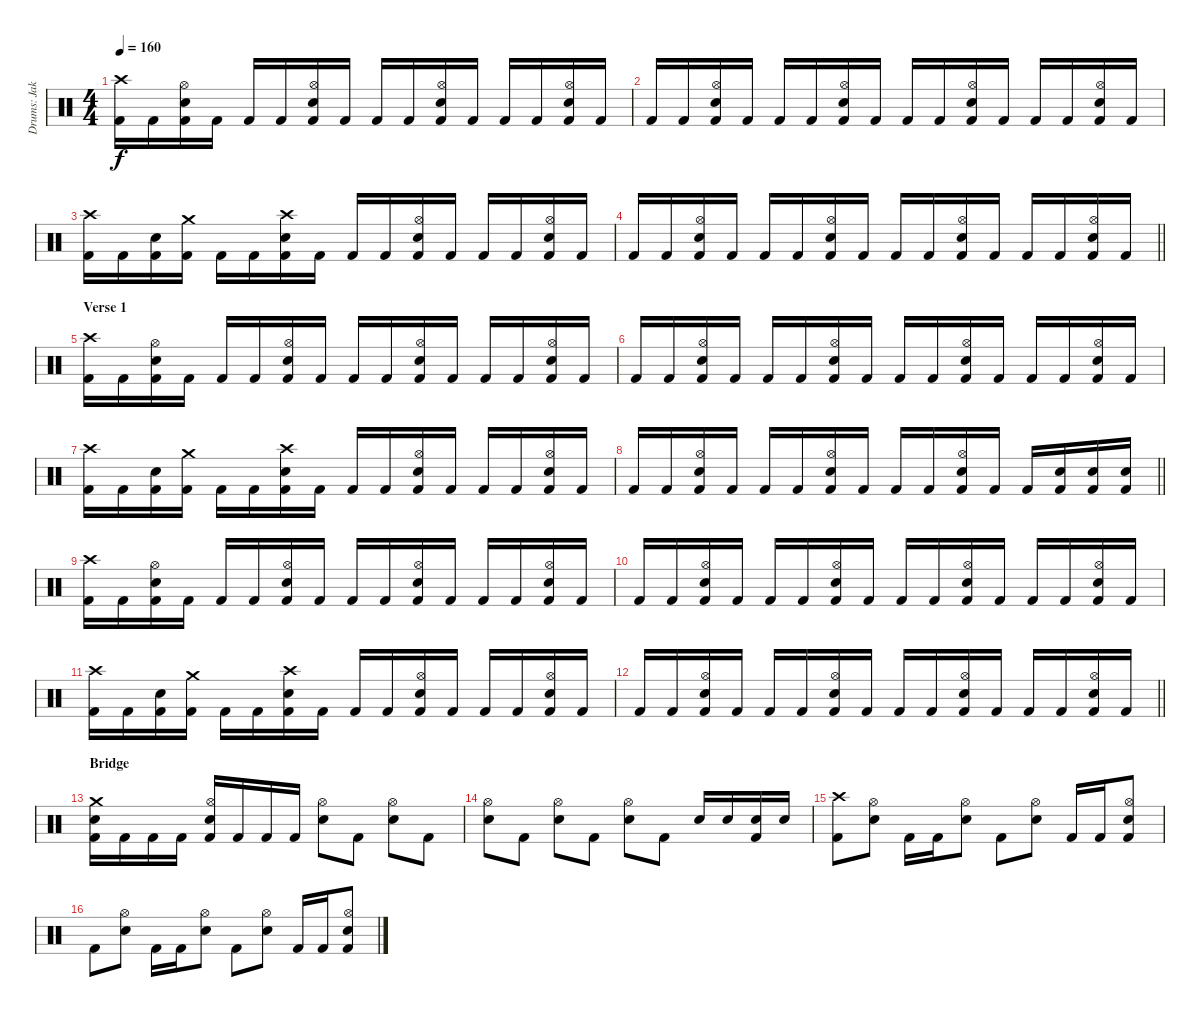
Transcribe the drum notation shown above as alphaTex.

\track ("Drums: Jake" "Drums: Jak") {instrument percussion}
\staff {score}
\articulation defaults
\ts (4 4)
\tempo 160
\clef neutral
\ks c
("Crash high (hit)" "Kick (hit) 2").16{dy f} "Kick (hit) 2".16 ("Hi-Hat (open)" "Snare (hit) 2" "Kick (hit) 2").16 "Kick (hit) 2".16 "Kick (hit) 2".16 "Kick (hit) 2".16 ("Hi-Hat (open)" "Snare (hit) 2" "Kick (hit) 2").16 "Kick (hit) 2".16 "Kick (hit) 2".16 "Kick (hit) 2".16 ("Hi-Hat (open)" "Snare (hit) 2" "Kick (hit) 2").16 "Kick (hit) 2".16 "Kick (hit) 2".16 "Kick (hit) 2".16 ("Hi-Hat (open)" "Snare (hit) 2" "Kick (hit) 2").16 "Kick (hit) 2".16 |
"Kick (hit) 2".16 "Kick (hit) 2".16 ("Hi-Hat (open)" "Snare (hit) 2" "Kick (hit) 2").16 "Kick (hit) 2".16 "Kick (hit) 2".16 "Kick (hit) 2".16 ("Hi-Hat (open)" "Snare (hit) 2" "Kick (hit) 2").16 "Kick (hit) 2".16 "Kick (hit) 2".16 "Kick (hit) 2".16 ("Hi-Hat (open)" "Snare (hit) 2" "Kick (hit) 2").16 "Kick (hit) 2".16 "Kick (hit) 2".16 "Kick (hit) 2".16 ("Hi-Hat (open)" "Snare (hit) 2" "Kick (hit) 2").16 "Kick (hit) 2".16 |
("Crash high (hit)" "Kick (hit) 2").16 "Kick (hit) 2".16 ("Snare (hit) 2" "Kick (hit) 2").16 ("Crash medium (hit)" "Kick (hit) 2").16 "Kick (hit) 2".16 "Kick (hit) 2".16 ("Crash high (hit)" "Snare (hit) 2" "Kick (hit) 2").16 "Kick (hit) 2".16 "Kick (hit) 2".16 "Kick (hit) 2".16 ("Hi-Hat (open)" "Snare (hit) 2" "Kick (hit) 2").16 "Kick (hit) 2".16 "Kick (hit) 2".16 "Kick (hit) 2".16 ("Hi-Hat (open)" "Snare (hit) 2" "Kick (hit) 2").16 "Kick (hit) 2".16 |
\barLineRight lightlight "Kick (hit) 2".16 "Kick (hit) 2".16
("Hi-Hat (open)" "Snare (hit) 2" "Kick (hit) 2").16 "Kick (hit) 2".16 "Kick (hit) 2".16 "Kick (hit) 2".16 ("Hi-Hat (open)" "Snare (hit) 2" "Kick (hit) 2").16 "Kick (hit) 2".16 "Kick (hit) 2".16 "Kick (hit) 2".16 ("Hi-Hat (open)" "Snare (hit) 2" "Kick (hit) 2").16 "Kick (hit) 2".16 "Kick (hit) 2".16 "Kick (hit) 2".16 ("Hi-Hat (open)" "Snare (hit) 2" "Kick (hit) 2").16 "Kick (hit) 2".16 |
\section ("" "Verse 1")
("Crash high (hit)" "Kick (hit) 2").16 "Kick (hit) 2".16 ("Hi-Hat (open)" "Snare (hit) 2" "Kick (hit) 2").16 "Kick (hit) 2".16 "Kick (hit) 2".16 "Kick (hit) 2".16 ("Hi-Hat (open)" "Snare (hit) 2" "Kick (hit) 2").16 "Kick (hit) 2".16 "Kick (hit) 2".16 "Kick (hit) 2".16 ("Hi-Hat (open)" "Snare (hit) 2" "Kick (hit) 2").16 "Kick (hit) 2".16 "Kick (hit) 2".16 "Kick (hit) 2".16 ("Hi-Hat (open)" "Snare (hit) 2" "Kick (hit) 2").16 "Kick (hit) 2".16 |
"Kick (hit) 2".16 "Kick (hit) 2".16 ("Hi-Hat (open)" "Snare (hit) 2" "Kick (hit) 2").16 "Kick (hit) 2".16 "Kick (hit) 2".16 "Kick (hit) 2".16 ("Hi-Hat (open)" "Snare (hit) 2" "Kick (hit) 2").16 "Kick (hit) 2".16 "Kick (hit) 2".16 "Kick (hit) 2".16 ("Hi-Hat (open)" "Snare (hit) 2" "Kick (hit) 2").16 "Kick (hit) 2".16 "Kick (hit) 2".16 "Kick (hit) 2".16 ("Hi-Hat (open)" "Snare (hit) 2" "Kick (hit) 2").16 "Kick (hit) 2".16 |
("Crash high (hit)" "Kick (hit) 2").16 "Kick (hit) 2".16 ("Snare (hit) 2" "Kick (hit) 2").16 ("Crash medium (hit)" "Kick (hit) 2").16 "Kick (hit) 2".16 "Kick (hit) 2".16 ("Crash high (hit)" "Snare (hit) 2" "Kick (hit) 2").16 "Kick (hit) 2".16 "Kick (hit) 2".16 "Kick (hit) 2".16 ("Hi-Hat (open)" "Snare (hit) 2" "Kick (hit) 2").16 "Kick (hit) 2".16 "Kick (hit) 2".16 "Kick (hit) 2".16 ("Hi-Hat (open)" "Snare (hit) 2" "Kick (hit) 2").16 "Kick (hit) 2".16 |
\barLineRight lightlight "Kick (hit) 2".16 "Kick (hit) 2".16
("Hi-Hat (open)" "Snare (hit) 2" "Kick (hit) 2").16 "Kick (hit) 2".16 "Kick (hit) 2".16 "Kick (hit) 2".16 ("Hi-Hat (open)" "Snare (hit) 2" "Kick (hit) 2").16 "Kick (hit) 2".16 "Kick (hit) 2".16 "Kick (hit) 2".16 ("Hi-Hat (open)" "Snare (hit) 2" "Kick (hit) 2").16 "Kick (hit) 2".16 "Kick (hit) 2".16 ("Snare (hit) 2" "Kick (hit) 2").16 ("Snare (hit) 2" "Kick (hit) 2").16 ("Snare (hit) 2" "Kick (hit) 2").16 |
("Crash high (hit)" "Kick (hit) 2").16 "Kick (hit) 2".16 ("Hi-Hat (open)" "Snare (hit) 2" "Kick (hit) 2").16 "Kick (hit) 2".16 "Kick (hit) 2".16 "Kick (hit) 2".16 ("Hi-Hat (open)" "Snare (hit) 2" "Kick (hit) 2").16 "Kick (hit) 2".16 "Kick (hit) 2".16 "Kick (hit) 2".16 ("Hi-Hat (open)" "Snare (hit) 2" "Kick (hit) 2").16 "Kick (hit) 2".16 "Kick (hit) 2".16 "Kick (hit) 2".16 ("Hi-Hat (open)" "Snare (hit) 2" "Kick (hit) 2").16 "Kick (hit) 2".16 |
"Kick (hit) 2".16 "Kick (hit) 2".16 ("Hi-Hat (open)" "Snare (hit) 2" "Kick (hit) 2").16 "Kick (hit) 2".16 "Kick (hit) 2".16 "Kick (hit) 2".16 ("Hi-Hat (open)" "Snare (hit) 2" "Kick (hit) 2").16 "Kick (hit) 2".16 "Kick (hit) 2".16 "Kick (hit) 2".16 ("Hi-Hat (open)" "Snare (hit) 2" "Kick (hit) 2").16 "Kick (hit) 2".16 "Kick (hit) 2".16 "Kick (hit) 2".16 ("Hi-Hat (open)" "Snare (hit) 2" "Kick (hit) 2").16 "Kick (hit) 2".16 |
("Crash high (hit)" "Kick (hit) 2").16 "Kick (hit) 2".16 ("Snare (hit) 2" "Kick (hit) 2").16 ("Crash medium (hit)" "Kick (hit) 2").16 "Kick (hit) 2".16 "Kick (hit) 2".16 ("Crash high (hit)" "Snare (hit) 2" "Kick (hit) 2").16 "Kick (hit) 2".16 "Kick (hit) 2".16 "Kick (hit) 2".16 ("Hi-Hat (open)" "Snare (hit) 2" "Kick (hit) 2").16 "Kick (hit) 2".16 "Kick (hit) 2".16 "Kick (hit) 2".16 ("Hi-Hat (open)" "Snare (hit) 2" "Kick (hit) 2").16 "Kick (hit) 2".16 |
\barLineRight lightlight "Kick (hit) 2".16 "Kick (hit) 2".16
("Hi-Hat (open)" "Snare (hit) 2" "Kick (hit) 2").16 "Kick (hit) 2".16 "Kick (hit) 2".16 "Kick (hit) 2".16 ("Hi-Hat (open)" "Snare (hit) 2" "Kick (hit) 2").16 "Kick (hit) 2".16 "Kick (hit) 2".16 "Kick (hit) 2".16 ("Hi-Hat (open)" "Snare (hit) 2" "Kick (hit) 2").16 "Kick (hit) 2".16 "Kick (hit) 2".16 "Kick (hit) 2".16 ("Hi-Hat (open)" "Snare (hit) 2" "Kick (hit) 2").16 "Kick (hit) 2".16 |
\section ("" "Bridge")
("Crash medium (hit)" "Snare (hit) 2" "Kick (hit) 2").16 "Kick (hit) 2".16 "Kick (hit) 2".16 "Kick (hit) 2".16 ("Hi-Hat (open)" "Snare (hit) 2" "Kick (hit) 2").16 "Kick (hit) 2".16 "Kick (hit) 2".16 "Kick (hit) 2".16 ("Hi-Hat (open)" "Snare (hit) 2").8 "Kick (hit) 2".8 ("Hi-Hat (open)" "Snare (hit) 2").8 "Kick (hit) 2".8 |
("Hi-Hat (open)" "Snare (hit) 2").8 "Kick (hit) 2".8 ("Hi-Hat (open)" "Snare (hit) 2").8 "Kick (hit) 2".8 ("Hi-Hat (open)" "Snare (hit) 2").8 "Kick (hit) 2".8 "Snare (hit) 2".16 "Snare (hit) 2".16 ("Snare (hit) 2" "Kick (hit) 2").16 "Snare (hit) 2".16 |
("Crash high (hit)" "Kick (hit) 2").8 ("Hi-Hat (open)" "Snare (hit) 2").8 "Kick (hit) 2".16 "Kick (hit) 2".16 ("Hi-Hat (open)" "Snare (hit) 2").8 "Kick (hit) 2".8 ("Hi-Hat (open)" "Snare (hit) 2").8 "Kick (hit) 2".16 "Kick (hit) 2".16 ("Hi-Hat (open)" "Snare (hit) 2" "Kick (hit) 2").8 |
"Kick (hit) 2".8 ("Hi-Hat (open)" "Snare (hit) 2").8 "Kick (hit) 2".16 "Kick (hit) 2".16 ("Hi-Hat (open)" "Snare (hit) 2").8 "Kick (hit) 2".8 ("Hi-Hat (open)" "Snare (hit) 2").8 "Kick (hit) 2".16 "Kick (hit) 2".16 ("Hi-Hat (open)" "Snare (hit) 2" "Kick (hit) 2").8
